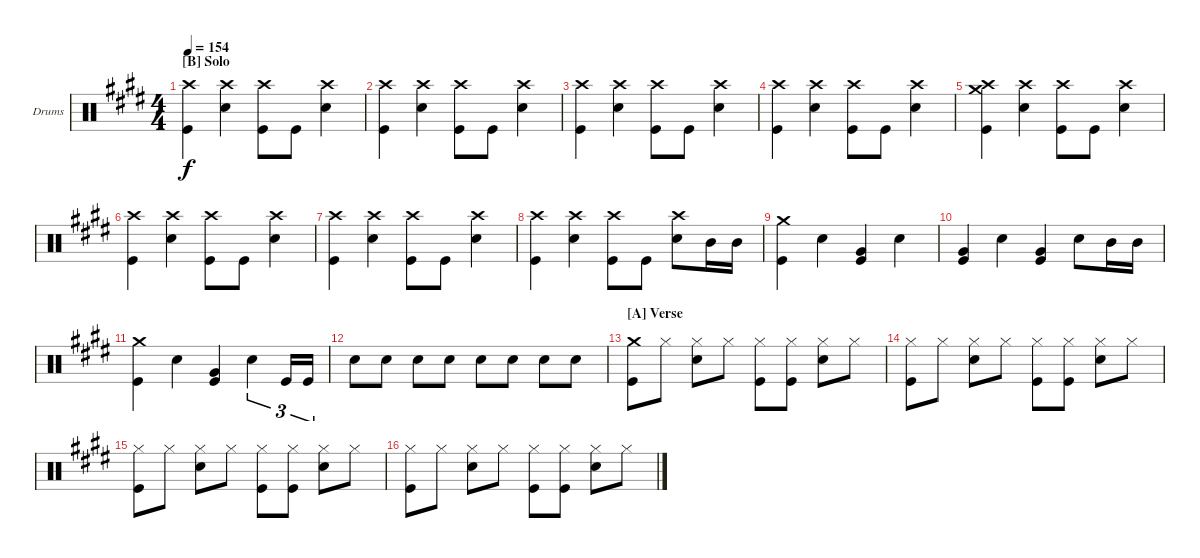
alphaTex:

\defaultSystemsLayout 4
\bracketExtendMode groupsimilarinstruments
\firstSystemTrackNameOrientation horizontal
\otherSystemsTrackNameOrientation horizontal
\track ("Jon Larsen" "Drums") {instrument percussion}
\staff {score}
\articulation defaults
\ts (4 4)
\section ("B" "Solo")
\tempo 154
\clef neutral
\scale
0.333333
\ks e
("Crash high (hit)" "Kick (hit)").4{dy f} ("Crash high (hit)" "Snare (hit) 2").4 ("Crash high (hit)" "Kick (hit)").8 "Kick (hit)".8 ("Crash high (hit)" "Snare (hit) 2").4 |
\scale
0.333333 ("Crash high (hit)" "Kick (hit)").4 ("Crash high (hit)" "Snare (hit) 2").4 ("Crash high (hit)" "Kick (hit)").8 "Kick (hit)".8 ("Crash high (hit)" "Snare (hit) 2").4 |
\scale
0.333333 ("Crash high (hit)" "Kick (hit)").4 ("Crash high (hit)" "Snare (hit) 2").4 ("Crash high (hit)" "Kick (hit)").8 "Kick (hit)".8 ("Crash high (hit)" "Snare (hit) 2").4 |
\scale
0.333333 ("Crash high (hit)" "Kick (hit)").4 ("Crash high (hit)" "Snare (hit) 2").4 ("Crash high (hit)" "Kick (hit)").8 "Kick (hit)".8 ("Crash high (hit)" "Snare (hit) 2").4 |
\scale
0.333333 ("Crash medium (hit)" "Crash high (hit)" "Kick (hit)").4 ("Crash high (hit)" "Snare (hit) 2").4 ("Crash high (hit)" "Kick (hit)").8 "Kick (hit)".8 ("Crash high (hit)" "Snare (hit) 2").4 |
\scale
0.333333 ("Crash high (hit)" "Kick (hit)").4 ("Crash high (hit)" "Snare (hit) 2").4 ("Crash high (hit)" "Kick (hit)").8 "Kick (hit)".8 ("Crash high (hit)" "Snare (hit) 2").4 |
\scale
0.333333 ("Crash high (hit)" "Kick (hit)").4 ("Crash high (hit)" "Snare (hit) 2").4 ("Crash high (hit)" "Kick (hit)").8 "Kick (hit)".8 ("Crash high (hit)" "Snare (hit) 2").4 |
\scale
0.333333 ("Crash high (hit)" "Kick (hit)").4 ("Crash high (hit)" "Snare (hit) 2").4 ("Crash high (hit)" "Kick (hit)").8 "Kick (hit)".8 ("Crash high (hit)" "Snare (hit) 2").8 "Mid Tom (hit)".16 "Mid Tom (hit)".16 |
\scale
0.333333 ("Crash medium (hit)" "Kick (hit)").4 "Snare (hit) 2".4 ("Very Low Tom (hit)" "Kick (hit)").4 "Snare (hit) 2".4 |
\scale
0.333333 ("Very Low Tom (hit)" "Kick (hit)").4 "Snare (hit) 2".4 ("Very Low Tom (hit)" "Kick (hit)").4 "Snare (hit) 2".8 "Mid Tom (hit)".16 "Mid Tom (hit)".16 |
\scale
0.333333 ("Crash medium (hit)" "Kick (hit)").4 "Snare (hit) 2".4 ("Very Low Tom (hit)" "Kick (hit)").4 "Snare (hit) 2".4{tu (3 2)} "Kick (hit)".16{tu (3 2)} "Kick (hit)".16{tu (3 2)} |
\scale
0.333333 "Snare (hit) 2".8 "Snare (hit) 2".8 "Snare (hit) 2".8 "Snare (hit) 2".8 "Snare (hit) 2".8 "Snare (hit) 2".8 "Snare (hit) 2".8 "Snare (hit) 2".8 |
\section ("A" "Verse")
\scale
0.333333 ("Crash medium (hit)" "Kick (hit)").8 "Hi-Hat (closed)".8 ("Hi-Hat (closed)" "Snare (hit) 2").8 "Hi-Hat (closed)".8 ("Hi-Hat (closed)" "Kick (hit)").8 ("Hi-Hat (closed)" "Kick (hit)").8 ("Hi-Hat (closed)" "Snare (hit) 2").8 "Hi-Hat (closed)".8 |
\scale
0.333333 ("Hi-Hat (closed)" "Kick (hit)").8 "Hi-Hat (closed)".8 ("Hi-Hat (closed)" "Snare (hit) 2").8 "Hi-Hat (closed)".8 ("Hi-Hat (closed)" "Kick (hit)").8 ("Hi-Hat (closed)" "Kick (hit)").8 ("Hi-Hat (closed)" "Snare (hit) 2").8 "Hi-Hat (closed)".8 |
\scale
0.333333 ("Hi-Hat (closed)" "Kick (hit)").8 "Hi-Hat (closed)".8 ("Hi-Hat (closed)" "Snare (hit) 2").8 "Hi-Hat (closed)".8 ("Hi-Hat (closed)" "Kick (hit)").8 ("Hi-Hat (closed)" "Kick (hit)").8 ("Hi-Hat (closed)" "Snare (hit) 2").8 "Hi-Hat (closed)".8 |
\scale
0.333333 ("Hi-Hat (closed)" "Kick (hit)").8 "Hi-Hat (closed)".8 ("Hi-Hat (closed)" "Snare (hit) 2").8 "Hi-Hat (closed)".8 ("Hi-Hat (closed)" "Kick (hit)").8 ("Hi-Hat (closed)" "Kick (hit)").8 ("Hi-Hat (closed)" "Snare (hit) 2").8 "Hi-Hat (closed)".8
